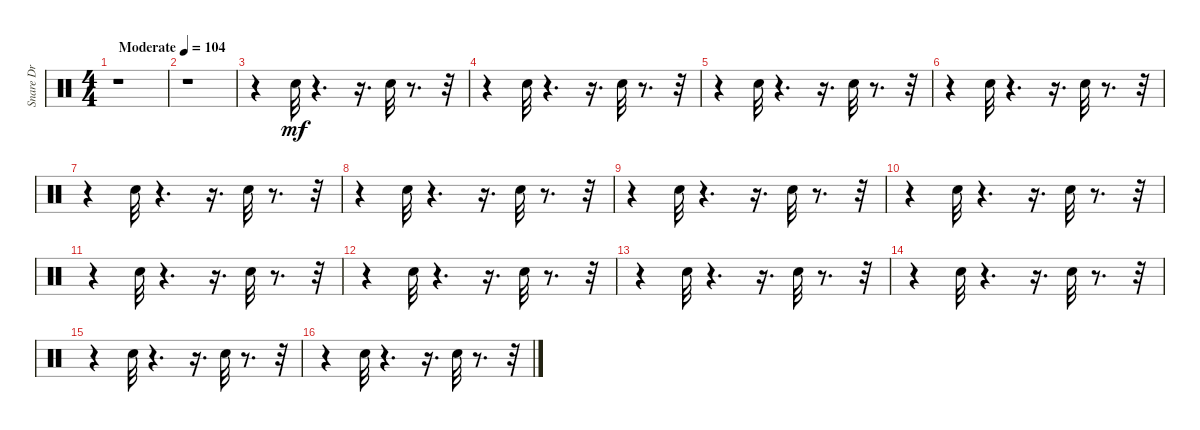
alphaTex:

\track ("  Snare Drum 1" "  Snare Dr") {instrument percussion}
\staff {score}
\articulation defaults
\ts (4 4)
\tempo (104 "Moderate")
\clef neutral
\ks c
r.1{dy mf} |
r.1 |
r.4 "Snare (hit) 2".32 r.4{d} r.16{d} "Snare (hit) 2".32 r.8{d} r.32 |
r.4 "Snare (hit) 2".32 r.4{d} r.16{d} "Snare (hit) 2".32 r.8{d} r.32 |
r.4 "Snare (hit) 2".32 r.4{d} r.16{d} "Snare (hit) 2".32 r.8{d} r.32 |
r.4 "Snare (hit) 2".32 r.4{d} r.16{d} "Snare (hit) 2".32 r.8{d} r.32 |
r.4 "Snare (hit) 2".32 r.4{d} r.16{d} "Snare (hit) 2".32 r.8{d} r.32 |
r.4 "Snare (hit) 2".32 r.4{d} r.16{d} "Snare (hit) 2".32 r.8{d} r.32 |
r.4 "Snare (hit) 2".32 r.4{d} r.16{d} "Snare (hit) 2".32 r.8{d} r.32 |
r.4 "Snare (hit) 2".32 r.4{d} r.16{d} "Snare (hit) 2".32 r.8{d} r.32 |
r.4 "Snare (hit) 2".32 r.4{d} r.16{d} "Snare (hit) 2".32 r.8{d} r.32 |
r.4 "Snare (hit) 2".32 r.4{d} r.16{d} "Snare (hit) 2".32 r.8{d} r.32 |
r.4 "Snare (hit) 2".32 r.4{d} r.16{d} "Snare (hit) 2".32 r.8{d} r.32 |
r.4 "Snare (hit) 2".32 r.4{d} r.16{d} "Snare (hit) 2".32 r.8{d} r.32 |
r.4 "Snare (hit) 2".32 r.4{d} r.16{d} "Snare (hit) 2".32 r.8{d} r.32 |
r.4 "Snare (hit) 2".32 r.4{d} r.16{d} "Snare (hit) 2".32 r.8{d} r.32
